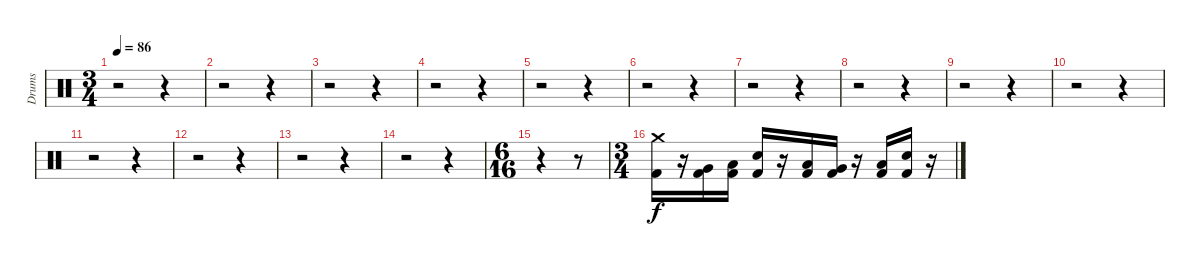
\track ("Drums" "Drums") {instrument percussion}
\staff {score}
\articulation defaults
\ts (3 4)
\tempo 86
\clef neutral
\ks c
r.2{dy f} r.4 |
r.2 r.4 |
r.2 r.4 |
r.2 r.4 |
r.2 r.4 |
r.2 r.4 |
r.2 r.4 |
r.2 r.4 |
r.2 r.4 |
r.2 r.4 |
r.2 r.4 |
r.2 r.4 |
r.2 r.4 |
r.2 r.4 |
\ts (6 16)
r.4 r.8 |
\ts (3 4)
("Crash medium (hit)" "Kick (hit) 2").16 r.16 ("Very Low Tom (hit)" "Kick (hit) 2").16 ("Low Floor Tom (hit)" "Kick (hit) 2").16 ("Electric Snare (hit)" "Kick (hit) 2").16 r.16 ("Low Tom (hit)" "Kick (hit) 2").16 ("Very Low Tom (hit)" "Kick (hit) 2").16 r.16 ("Low Floor Tom (hit)" "Kick (hit) 2").16 ("Electric Snare (hit)" "Kick (hit) 2").16 r.16
